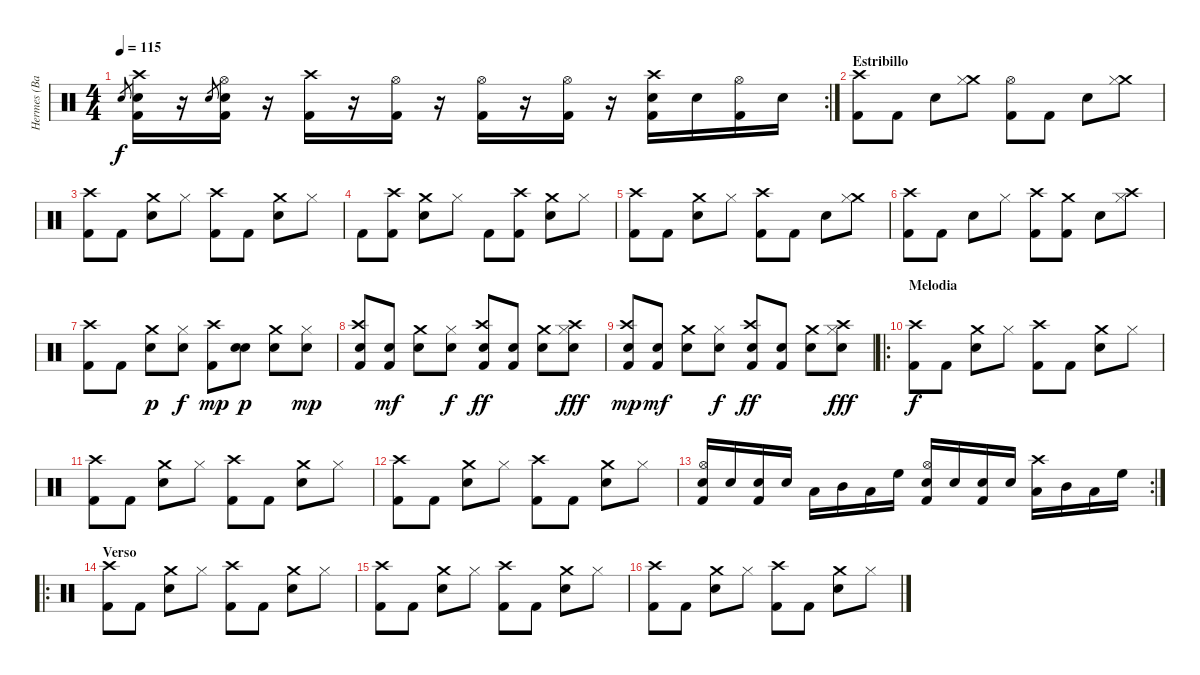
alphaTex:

\track ("Hermes (Bateria)" "Hermes (Ba") {instrument percussion}
\staff {score}
\articulation defaults
\rc 2
\ts (4 4)
\tempo 115
\clef neutral
\ks c "Snare (hit) 2".8{gr dy f}
("Crash high (hit)" "Snare (hit) 2" "Kick (hit) 2").16 r.16 "Snare (hit) 2".8{gr} ("Hi-Hat (open)" "Snare (hit) 2" "Kick (hit) 2").16 r.16 ("Crash high (hit)" "Kick (hit) 2").16 r.16 ("Hi-Hat (open)" "Kick (hit) 2").16 r.16 ("Hi-Hat (open)" "Kick (hit) 2").16 r.16 ("Hi-Hat (open)" "Kick (hit) 2").16 r.16 ("Crash high (hit)" "Snare (hit) 2" "Kick (hit) 2").16 "Snare (hit) 2".16 ("Hi-Hat (open)" "Kick (hit) 2").16 "Snare (hit) 2".16 |
\section ("" "Estribillo")
("Crash high (hit)" "Kick (hit) 2").8 "Kick (hit) 2".8 "Snare (hit) 2".8 ("Crash medium (hit)" "Hi-Hat (closed)").8 ("Hi-Hat (open)" "Kick (hit) 2").8 "Kick (hit) 2".8 "Snare (hit) 2".8 ("Crash medium (hit)" "Hi-Hat (closed)").8 |
("Crash high (hit)" "Kick (hit) 2").8 "Kick (hit) 2".8 ("Crash medium (hit)" "Snare (hit) 2").8 "Hi-Hat (closed)".8 ("Crash high (hit)" "Kick (hit) 2").8 "Kick (hit) 2".8 ("Crash medium (hit)" "Snare (hit) 2").8 "Hi-Hat (closed)".8 |
"Kick (hit) 2".8 ("Crash high (hit)" "Kick (hit) 2").8 ("Crash medium (hit)" "Snare (hit) 2").8 "Hi-Hat (closed)".8 "Kick (hit) 2".8 ("Crash high (hit)" "Kick (hit) 2").8 ("Crash medium (hit)" "Snare (hit) 2").8 "Hi-Hat (closed)".8 |
("Crash high (hit)" "Kick (hit) 2").8 "Kick (hit) 2".8 ("Crash medium (hit)" "Snare (hit) 2").8 "Hi-Hat (closed)".8 ("Crash high (hit)" "Kick (hit) 2").8 "Kick (hit) 2".8 "Snare (hit) 2".8 ("Crash medium (hit)" "Hi-Hat (closed)").8 |
("Crash high (hit)" "Kick (hit) 2").8 "Kick (hit) 2".8 "Snare (hit) 2".8 "Hi-Hat (closed)".8 ("Crash high (hit)" "Kick (hit) 2").8 ("Crash medium (hit)" "Kick (hit) 2").8 "Snare (hit) 2".8 ("Crash high (hit)" "Hi-Hat (closed)").8 |
("Crash high (hit)" "Kick (hit) 2").8 "Kick (hit) 2".8 ("Crash medium (hit)" "Snare (hit) 2").8{dy p} ("Hi-Hat (closed)" "Snare (hit) 2").8{dy f} ("Crash high (hit)" "Kick (hit) 2").8{dy mp} ("Snare (hit) 2" "Snare (hit) 2").8{dy p} ("Crash medium (hit)" "Snare (hit) 2").8 ("Hi-Hat (closed)" "Snare (hit) 2").8{dy mp} |
("Crash high (hit)" "Snare (hit) 2" "Kick (hit) 2").8 ("Snare (hit) 2" "Kick (hit) 2").8{dy mf} ("Crash medium (hit)" "Snare (hit) 2").8 ("Hi-Hat (closed)" "Snare (hit) 2").8{dy f} ("Crash high (hit)" "Snare (hit) 2" "Kick (hit) 2").8{dy ff} ("Snare (hit) 2" "Kick (hit) 2").8 ("Crash medium (hit)" "Snare (hit) 2").8 ("Crash high (hit)" "Hi-Hat (closed)" "Snare (hit) 2").8{dy fff} |
("Crash high (hit)" "Snare (hit) 2" "Kick (hit) 2").8{dy mp} ("Snare (hit) 2" "Kick (hit) 2").8{dy mf} ("Crash medium (hit)" "Snare (hit) 2").8 ("Hi-Hat (closed)" "Snare (hit) 2").8{dy f} ("Crash high (hit)" "Snare (hit) 2" "Kick (hit) 2").8{dy ff} ("Snare (hit) 2" "Kick (hit) 2").8 ("Crash medium (hit)" "Snare (hit) 2").8 ("Crash high (hit)" "Hi-Hat (closed)" "Snare (hit) 2").8{dy fff} |
\ro
\section ("" "Melodia")
("Crash high (hit)" "Kick (hit) 2").8{dy f} "Kick (hit) 2".8 ("Crash medium (hit)" "Snare (hit) 2").8 "Hi-Hat (closed)".8 ("Crash high (hit)" "Kick (hit) 2").8 "Kick (hit) 2".8 ("Crash medium (hit)" "Snare (hit) 2").8 "Hi-Hat (closed)".8 |
("Crash high (hit)" "Kick (hit) 2").8 "Kick (hit) 2".8 ("Crash medium (hit)" "Snare (hit) 2").8 "Hi-Hat (closed)".8 ("Crash high (hit)" "Kick (hit) 2").8 "Kick (hit) 2".8 ("Crash medium (hit)" "Snare (hit) 2").8 "Hi-Hat (closed)".8 |
("Crash high (hit)" "Kick (hit) 2").8 "Kick (hit) 2".8 ("Crash medium (hit)" "Snare (hit) 2").8 "Hi-Hat (closed)".8 ("Crash high (hit)" "Kick (hit) 2").8 "Kick (hit) 2".8 ("Crash medium (hit)" "Snare (hit) 2").8 "Hi-Hat (closed)".8 |
\rc 2
("Hi-Hat (open)" "Electric Snare (hit)" "Kick (hit) 2").16 "Electric Snare (hit)".16 ("Electric Snare (hit)" "Kick (hit) 2").16 "Electric Snare (hit)".16 "Low Tom (hit)".16 "Mid Tom (hit)".16 "Low Tom (hit)".16 "High Floor Tom (hit)".16 ("Hi-Hat (open)" "Electric Snare (hit)" "Kick (hit) 2").16 "Electric Snare (hit)".16 ("Electric Snare (hit)" "Kick (hit) 2").16 "Electric Snare (hit)".16 ("Crash high (hit)" "Low Tom (hit)").16 "Mid Tom (hit)".16 "Low Tom (hit)".16 "High Floor Tom (hit)".16 |
\ro
\section ("" "Verso")
("Crash high (hit)" "Kick (hit) 2").8 "Kick (hit) 2".8 ("Crash medium (hit)" "Snare (hit) 2").8 "Hi-Hat (closed)".8 ("Crash high (hit)" "Kick (hit) 2").8 "Kick (hit) 2".8 ("Crash medium (hit)" "Snare (hit) 2").8 "Hi-Hat (closed)".8 |
("Crash high (hit)" "Kick (hit) 2").8 "Kick (hit) 2".8 ("Crash medium (hit)" "Snare (hit) 2").8 "Hi-Hat (closed)".8 ("Crash high (hit)" "Kick (hit) 2").8 "Kick (hit) 2".8 ("Crash medium (hit)" "Snare (hit) 2").8 "Hi-Hat (closed)".8 |
("Crash high (hit)" "Kick (hit) 2").8 "Kick (hit) 2".8 ("Crash medium (hit)" "Snare (hit) 2").8 "Hi-Hat (closed)".8 ("Crash high (hit)" "Kick (hit) 2").8 "Kick (hit) 2".8 ("Crash medium (hit)" "Snare (hit) 2").8 "Hi-Hat (closed)".8
